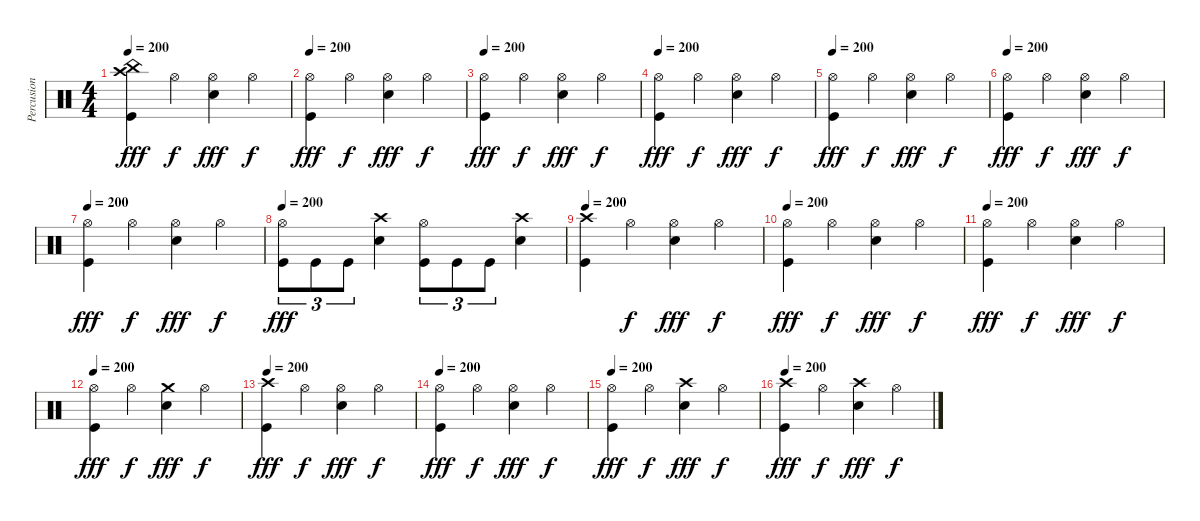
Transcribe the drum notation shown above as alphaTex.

\track ("Percusion" "Percusion") {instrument percussion}
\staff {score}
\articulation defaults
\ts (4 4)
\tempo 200
\clef neutral
\ks c
("Crash high (hit)" "China (hit)" "Kick (hit)").4{dy fff} "Hi-Hat (open)".4{dy f} ("Hi-Hat (open)" "Snare (hit) 2").4{dy fff} "Hi-Hat (open)".4{dy f} |
\tempo 200
("Hi-Hat (open)" "Kick (hit)").4{dy fff} "Hi-Hat (open)".4{dy f} ("Hi-Hat (open)" "Snare (hit) 2").4{dy fff} "Hi-Hat (open)".4{dy f} |
\tempo 200
("Hi-Hat (open)" "Kick (hit)").4{dy fff} "Hi-Hat (open)".4{dy f} ("Hi-Hat (open)" "Snare (hit) 2").4{dy fff} "Hi-Hat (open)".4{dy f} |
\tempo 200
("Hi-Hat (open)" "Kick (hit)").4{dy fff} "Hi-Hat (open)".4{dy f} ("Hi-Hat (open)" "Snare (hit) 2").4{dy fff} "Hi-Hat (open)".4{dy f} |
\tempo 200
("Hi-Hat (open)" "Kick (hit)").4{dy fff} "Hi-Hat (open)".4{dy f} ("Hi-Hat (open)" "Snare (hit) 2").4{dy fff} "Hi-Hat (open)".4{dy f} |
\tempo 200
("Hi-Hat (open)" "Kick (hit)").4{dy fff} "Hi-Hat (open)".4{dy f} ("Hi-Hat (open)" "Snare (hit) 2").4{dy fff} "Hi-Hat (open)".4{dy f} |
\tempo 200
("Hi-Hat (open)" "Kick (hit)").4{dy fff} "Hi-Hat (open)".4{dy f} ("Hi-Hat (open)" "Snare (hit) 2").4{dy fff} "Hi-Hat (open)".4{dy f} |
\tempo 200
("Hi-Hat (open)" "Kick (hit)").8{tu (3 2) dy fff} "Kick (hit)".8{tu (3 2)} "Kick (hit)".8{tu (3 2)} ("Crash high (hit)" "Snare (hit) 2").4 ("Hi-Hat (open)" "Kick (hit)").8{tu (3 2)} "Kick (hit)".8{tu (3 2)} "Kick (hit)".8{tu (3 2)} ("Crash high (hit)" "Snare (hit) 2").4 |
\tempo 200
("Crash high (hit)" "Kick (hit)").4 "Hi-Hat (open)".4{dy f} ("Hi-Hat (open)" "Snare (hit) 2").4{dy fff} "Hi-Hat (open)".4{dy f} |
\tempo 200
("Hi-Hat (open)" "Kick (hit)").4{dy fff} "Hi-Hat (open)".4{dy f} ("Hi-Hat (open)" "Snare (hit) 2").4{dy fff} "Hi-Hat (open)".4{dy f} |
\tempo 200
("Hi-Hat (open)" "Kick (hit)").4{dy fff} "Hi-Hat (open)".4{dy f} ("Hi-Hat (open)" "Snare (hit) 2").4{dy fff} "Hi-Hat (open)".4{dy f} |
\tempo 200
("Hi-Hat (open)" "Kick (hit)").4{dy fff} "Hi-Hat (open)".4{dy f} ("Crash medium (hit)" "Snare (hit) 2").4{dy fff} "Hi-Hat (open)".4{dy f} |
\tempo 200
("Crash high (hit)" "Kick (hit)").4{dy fff} "Hi-Hat (open)".4{dy f} ("Hi-Hat (open)" "Snare (hit) 2").4{dy fff} "Hi-Hat (open)".4{dy f} |
\tempo 200
("Hi-Hat (open)" "Kick (hit)").4{dy fff} "Hi-Hat (open)".4{dy f} ("Hi-Hat (open)" "Snare (hit) 2").4{dy fff} "Hi-Hat (open)".4{dy f} |
\tempo 200
("Hi-Hat (open)" "Kick (hit)").4{dy fff} "Hi-Hat (open)".4{dy f} ("Crash high (hit)" "Snare (hit) 2").4{dy fff} "Hi-Hat (open)".4{dy f} |
\tempo 200
("Crash high (hit)" "Kick (hit)").4{dy fff} "Hi-Hat (open)".4{dy f} ("Crash high (hit)" "Snare (hit) 2").4{dy fff} "Hi-Hat (open)".4{dy f}
